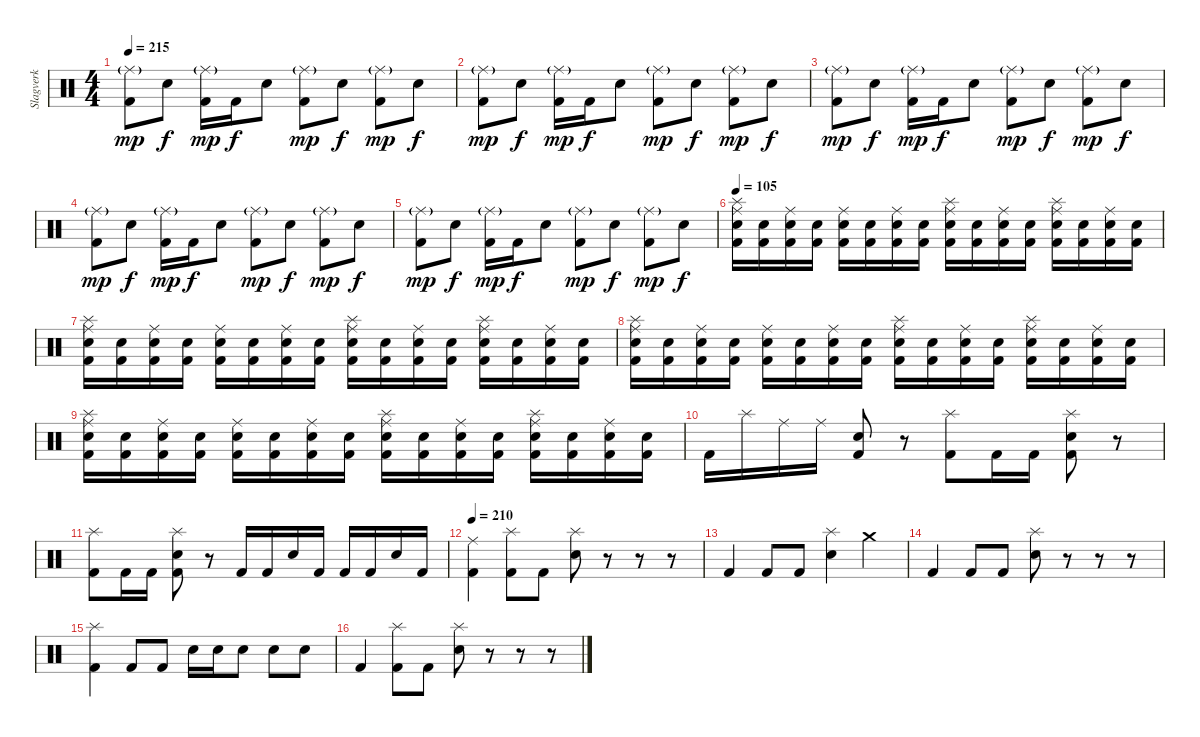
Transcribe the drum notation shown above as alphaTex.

\track ("Slagverk" "Slagverk") {instrument percussion}
\staff {score}
\articulation defaults
\ts (4 4)
\tempo 215
\clef neutral
\ks c
("Ride (middle)"{g} "Kick (hit) 2").8{dy mp} "Electric Snare (hit)".8{dy f} ("Ride (middle)"{g} "Kick (hit) 2").16{dy mp} "Kick (hit) 2".16{dy f} "Electric Snare (hit)".8 ("Ride (middle)"{g} "Kick (hit) 2").8{dy mp} "Electric Snare (hit)".8{dy f} ("Ride (middle)"{g} "Kick (hit) 2").8{dy mp} "Electric Snare (hit)".8{dy f} |
("Ride (middle)"{g} "Kick (hit) 2").8{dy mp} "Electric Snare (hit)".8{dy f} ("Ride (middle)"{g} "Kick (hit) 2").16{dy mp} "Kick (hit) 2".16{dy f} "Electric Snare (hit)".8 ("Ride (middle)"{g} "Kick (hit) 2").8{dy mp} "Electric Snare (hit)".8{dy f} ("Ride (middle)"{g} "Kick (hit) 2").8{dy mp} "Electric Snare (hit)".8{dy f} |
("Ride (middle)"{g} "Kick (hit) 2").8{dy mp} "Electric Snare (hit)".8{dy f} ("Ride (middle)"{g} "Kick (hit) 2").16{dy mp} "Kick (hit) 2".16{dy f} "Electric Snare (hit)".8 ("Ride (middle)"{g} "Kick (hit) 2").8{dy mp} "Electric Snare (hit)".8{dy f} ("Ride (middle)"{g} "Kick (hit) 2").8{dy mp} "Electric Snare (hit)".8{dy f} |
("Ride (middle)"{g} "Kick (hit) 2").8{dy mp} "Electric Snare (hit)".8{dy f} ("Ride (middle)"{g} "Kick (hit) 2").16{dy mp} "Kick (hit) 2".16{dy f} "Electric Snare (hit)".8 ("Ride (middle)"{g} "Kick (hit) 2").8{dy mp} "Electric Snare (hit)".8{dy f} ("Ride (middle)"{g} "Kick (hit) 2").8{dy mp} "Electric Snare (hit)".8{dy f} |
("Ride (middle)"{g} "Kick (hit) 2").8{dy mp} "Electric Snare (hit)".8{dy f} ("Ride (middle)"{g} "Kick (hit) 2").16{dy mp} "Kick (hit) 2".16{dy f} "Electric Snare (hit)".8 ("Ride (middle)"{g} "Kick (hit) 2").8{dy mp} "Electric Snare (hit)".8{dy f} ("Ride (middle)"{g} "Kick (hit) 2").8{dy mp} "Electric Snare (hit)".8{dy f} |
\tempo 105
("Ride (middle)" "Splash (hit)" "Electric Snare (hit)" "Kick (hit) 2").16 ("Electric Snare (hit)" "Kick (hit) 2").16 ("Ride (middle)" "Electric Snare (hit)" "Kick (hit) 2").16 ("Electric Snare (hit)" "Kick (hit) 2").16 ("Ride (middle)" "Electric Snare (hit)" "Kick (hit) 2").16 ("Electric Snare (hit)" "Kick (hit) 2").16 ("Ride (middle)" "Electric Snare (hit)" "Kick (hit) 2").16 ("Electric Snare (hit)" "Kick (hit) 2").16 ("Ride (middle)" "Splash (hit)" "Electric Snare (hit)" "Kick (hit) 2").16 ("Electric Snare (hit)" "Kick (hit) 2").16 ("Ride (middle)" "Electric Snare (hit)" "Kick (hit) 2").16 ("Electric Snare (hit)" "Kick (hit) 2").16 ("Ride (middle)" "Splash (hit)" "Electric Snare (hit)" "Kick (hit) 2").16 ("Electric Snare (hit)" "Kick (hit) 2").16 ("Ride (middle)" "Electric Snare (hit)" "Kick (hit) 2").16 ("Electric Snare (hit)" "Kick (hit) 2").16 |
("Ride (middle)" "Splash (hit)" "Electric Snare (hit)" "Kick (hit) 2").16 ("Electric Snare (hit)" "Kick (hit) 2").16 ("Ride (middle)" "Electric Snare (hit)" "Kick (hit) 2").16 ("Electric Snare (hit)" "Kick (hit) 2").16 ("Ride (middle)" "Electric Snare (hit)" "Kick (hit) 2").16 ("Electric Snare (hit)" "Kick (hit) 2").16 ("Ride (middle)" "Electric Snare (hit)" "Kick (hit) 2").16 ("Electric Snare (hit)" "Kick (hit) 2").16 ("Ride (middle)" "Splash (hit)" "Electric Snare (hit)" "Kick (hit) 2").16 ("Electric Snare (hit)" "Kick (hit) 2").16 ("Ride (middle)" "Electric Snare (hit)" "Kick (hit) 2").16 ("Electric Snare (hit)" "Kick (hit) 2").16 ("Ride (middle)" "Splash (hit)" "Electric Snare (hit)" "Kick (hit) 2").16 ("Electric Snare (hit)" "Kick (hit) 2").16 ("Ride (middle)" "Electric Snare (hit)" "Kick (hit) 2").16 ("Electric Snare (hit)" "Kick (hit) 2").16 |
("Ride (middle)" "Splash (hit)" "Electric Snare (hit)" "Kick (hit) 2").16 ("Electric Snare (hit)" "Kick (hit) 2").16 ("Ride (middle)" "Electric Snare (hit)" "Kick (hit) 2").16 ("Electric Snare (hit)" "Kick (hit) 2").16 ("Ride (middle)" "Electric Snare (hit)" "Kick (hit) 2").16 ("Electric Snare (hit)" "Kick (hit) 2").16 ("Ride (middle)" "Electric Snare (hit)" "Kick (hit) 2").16 ("Electric Snare (hit)" "Kick (hit) 2").16 ("Ride (middle)" "Splash (hit)" "Electric Snare (hit)" "Kick (hit) 2").16 ("Electric Snare (hit)" "Kick (hit) 2").16 ("Ride (middle)" "Electric Snare (hit)" "Kick (hit) 2").16 ("Electric Snare (hit)" "Kick (hit) 2").16 ("Ride (middle)" "Splash (hit)" "Electric Snare (hit)" "Kick (hit) 2").16 ("Electric Snare (hit)" "Kick (hit) 2").16 ("Ride (middle)" "Electric Snare (hit)" "Kick (hit) 2").16 ("Electric Snare (hit)" "Kick (hit) 2").16 |
("Ride (middle)" "Splash (hit)" "Electric Snare (hit)" "Kick (hit) 2").16 ("Electric Snare (hit)" "Kick (hit) 2").16 ("Ride (middle)" "Electric Snare (hit)" "Kick (hit) 2").16 ("Electric Snare (hit)" "Kick (hit) 2").16 ("Ride (middle)" "Electric Snare (hit)" "Kick (hit) 2").16 ("Electric Snare (hit)" "Kick (hit) 2").16 ("Ride (middle)" "Electric Snare (hit)" "Kick (hit) 2").16 ("Electric Snare (hit)" "Kick (hit) 2").16 ("Ride (middle)" "Splash (hit)" "Electric Snare (hit)" "Kick (hit) 2").16 ("Electric Snare (hit)" "Kick (hit) 2").16 ("Ride (middle)" "Electric Snare (hit)" "Kick (hit) 2").16 ("Electric Snare (hit)" "Kick (hit) 2").16 ("Ride (middle)" "Splash (hit)" "Electric Snare (hit)" "Kick (hit) 2").16 ("Electric Snare (hit)" "Kick (hit) 2").16 ("Ride (middle)" "Electric Snare (hit)" "Kick (hit) 2").16 ("Electric Snare (hit)" "Kick (hit) 2").16 |
"Kick (hit) 2".16 "Splash (hit)".16 "Ride (middle)".16 "Ride (middle)".16 ("Electric Snare (hit)" "Kick (hit) 2").8 r.8 ("Splash (hit)" "Kick (hit) 2").8 "Kick (hit) 2".16 "Kick (hit) 2".16 ("Splash (hit)" "Electric Snare (hit)" "Kick (hit) 2").8 r.8 |
("Splash (hit)" "Kick (hit) 2").8 "Kick (hit) 2".16 "Kick (hit) 2".16 ("Splash (hit)" "Electric Snare (hit)" "Kick (hit) 2").8 r.8 "Kick (hit) 2".16 "Kick (hit) 2".16 "Electric Snare (hit)".16 "Kick (hit) 2".16 "Kick (hit) 2".16 "Kick (hit) 2".16 "Electric Snare (hit)".16 "Kick (hit) 2".16 |
\tempo 210
("Ride (middle)" "Kick (hit) 2").4 ("Splash (hit)" "Kick (hit) 2").8 "Kick (hit) 2".8 ("Splash (hit)" "Electric Snare (hit)").8 r.8 r.8 r.8 |
"Kick (hit) 2".4 "Kick (hit) 2".8 "Kick (hit) 2".8 ("Splash (hit)" "Electric Snare (hit)").4 "Crash medium (hit)".4 |
"Kick (hit) 2".4 "Kick (hit) 2".8 "Kick (hit) 2".8 ("Splash (hit)" "Electric Snare (hit)").8 r.8 r.8 r.8 |
("Splash (hit)" "Kick (hit) 2").4 "Kick (hit) 2".8 "Kick (hit) 2".8 "Electric Snare (hit)".16 "Electric Snare (hit)".16 "Electric Snare (hit)".8 "Electric Snare (hit)".8 "Electric Snare (hit)".8 |
"Kick (hit) 2".4 ("Splash (hit)" "Kick (hit) 2").8 "Kick (hit) 2".8 ("Splash (hit)" "Electric Snare (hit)").8 r.8 r.8 r.8
